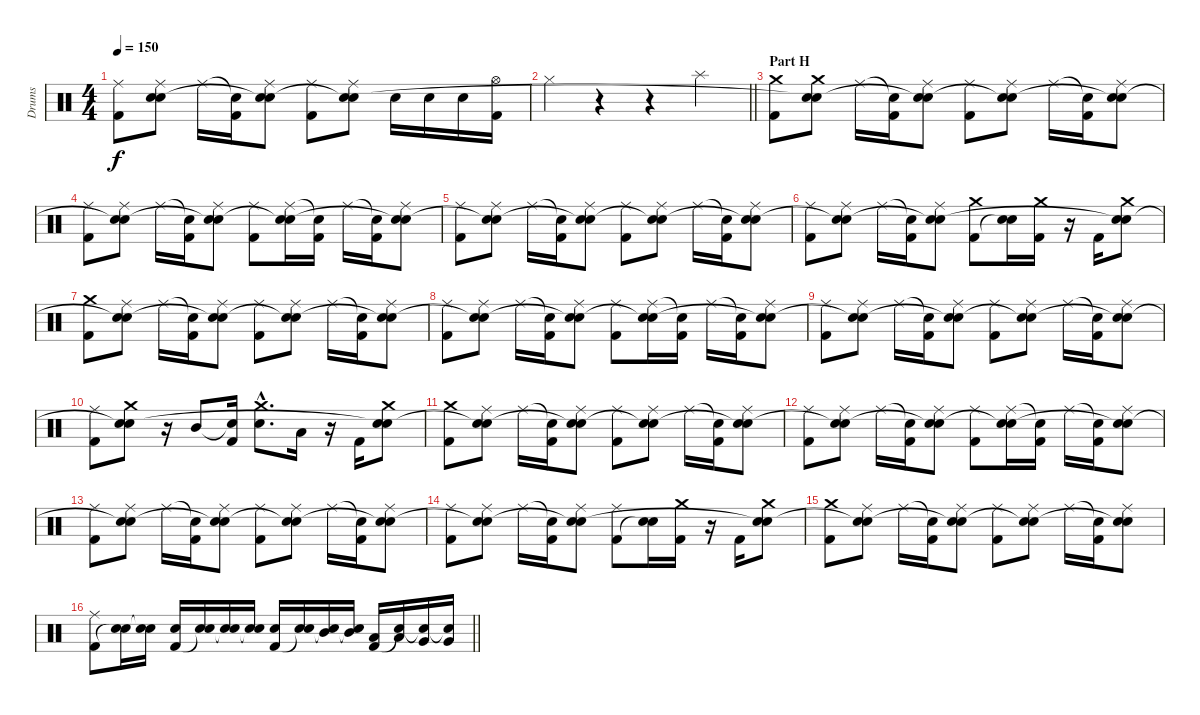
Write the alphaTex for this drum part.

\track ("Drums" "Drums") {instrument percussion}
\staff {score}
\articulation defaults
\ts (4 4)
\tempo 150
\clef neutral
\ks c
("Ride (middle)" "Kick (hit) 2").8{dy f} ("Ride (middle)" "Electric Snare (hit)" "Snare (hit)"{t}).8 "Ride (middle)".16 ("Snare (hit)"{t} "Kick (hit) 2").16 ("Ride (middle)" "Electric Snare (hit)" "Snare (hit)"{t}).8 ("Ride (middle)" "Kick (hit) 2").8 ("Ride (middle)" "Electric Snare (hit)" "Snare (hit)"{t}).8 "Electric Snare (hit)".16 "Electric Snare (hit)".16 "Electric Snare (hit)".16 ("Hi-Hat (open)" "Kick (hit) 2").16 |
\barLineRight lightlight "Hi-Hat (closed)".4
r.4 r.4 "Splash (hit)".4 |
\section ("" "Part H")
("Crash medium (hit)" "Kick (hit) 2").8 ("Crash medium (hit)" "Electric Snare (hit)" "Snare (hit)"{t}).8 "Ride (middle)".16 ("Snare (hit)"{t} "Kick (hit) 2").16 ("Ride (middle)" "Electric Snare (hit)" "Snare (hit)"{t}).8 ("Ride (middle)" "Kick (hit) 2").8 ("Ride (middle)" "Electric Snare (hit)" "Snare (hit)"{t}).8 "Ride (middle)".16 ("Snare (hit)"{t} "Kick (hit) 2").16 ("Ride (middle)" "Electric Snare (hit)" "Snare (hit)"{t}).8 |
("Ride (middle)" "Kick (hit) 2").8 ("Ride (middle)" "Electric Snare (hit)" "Snare (hit)"{t}).8 "Ride (middle)".16 ("Snare (hit)"{t} "Kick (hit) 2").16 ("Ride (middle)" "Electric Snare (hit)" "Snare (hit)"{t}).8 ("Ride (middle)" "Kick (hit) 2").8 ("Ride (middle)" "Electric Snare (hit)" "Snare (hit)"{t}).16 ("Snare (hit)"{t} "Kick (hit) 2").16 "Ride (middle)".16 ("Snare (hit)"{t} "Kick (hit) 2").16 ("Ride (middle)" "Electric Snare (hit)" "Snare (hit)"{t}).8 |
("Ride (middle)" "Kick (hit) 2").8 ("Ride (middle)" "Electric Snare (hit)" "Snare (hit)"{t}).8 "Ride (middle)".16 ("Snare (hit)"{t} "Kick (hit) 2").16 ("Ride (middle)" "Electric Snare (hit)" "Snare (hit)"{t}).8 ("Ride (middle)" "Kick (hit) 2").8 ("Ride (middle)" "Electric Snare (hit)" "Snare (hit)"{t}).8 "Ride (middle)".16 ("Snare (hit)"{t} "Kick (hit) 2").16 ("Ride (middle)" "Electric Snare (hit)" "Snare (hit)"{t}).8 |
("Ride (middle)" "Kick (hit) 2").8 ("Ride (middle)" "Electric Snare (hit)" "Snare (hit)"{t}).8 "Ride (middle)".16 ("Snare (hit)"{t} "Kick (hit) 2").16 ("Ride (middle)" "Electric Snare (hit)" "Snare (hit)"{t}).8 ("Crash medium (hit)" "Kick (hit) 2").8 ("Electric Snare (hit)" "Snare (hit)"{t}).16 ("Crash medium (hit)" "Kick (hit) 2").16 r.16 "Kick (hit) 2".16 ("Crash medium (hit)" "Electric Snare (hit)" "Snare (hit)"{t}).8 |
("Crash medium (hit)" "Kick (hit) 2").8 ("Ride (middle)" "Electric Snare (hit)" "Snare (hit)"{t}).8 "Ride (middle)".16 ("Snare (hit)"{t} "Kick (hit) 2").16 ("Ride (middle)" "Electric Snare (hit)" "Snare (hit)"{t}).8 ("Ride (middle)" "Kick (hit) 2").8 ("Ride (middle)" "Electric Snare (hit)" "Snare (hit)"{t}).8 "Ride (middle)".16 ("Snare (hit)"{t} "Kick (hit) 2").16 ("Ride (middle)" "Electric Snare (hit)" "Snare (hit)"{t}).8 |
("Ride (middle)" "Kick (hit) 2").8 ("Ride (middle)" "Electric Snare (hit)" "Snare (hit)"{t}).8 "Ride (middle)".16 ("Snare (hit)"{t} "Kick (hit) 2").16 ("Ride (middle)" "Electric Snare (hit)" "Snare (hit)"{t}).8 ("Ride (middle)" "Kick (hit) 2").8 ("Ride (middle)" "Electric Snare (hit)" "Snare (hit)"{t}).16 ("Snare (hit)"{t} "Kick (hit) 2").16 "Ride (middle)".16 ("Snare (hit)"{t} "Kick (hit) 2").16 ("Ride (middle)" "Electric Snare (hit)" "Snare (hit)"{t}).8 |
("Ride (middle)" "Kick (hit) 2").8 ("Ride (middle)" "Electric Snare (hit)" "Snare (hit)"{t}).8 "Ride (middle)".16 ("Snare (hit)"{t} "Kick (hit) 2").16 ("Ride (middle)" "Electric Snare (hit)" "Snare (hit)"{t}).8 ("Ride (middle)" "Kick (hit) 2").8 ("Ride (middle)" "Electric Snare (hit)" "Snare (hit)"{t}).8 "Ride (middle)".16 ("Snare (hit)"{t} "Kick (hit) 2").16 ("Ride (middle)" "Electric Snare (hit)" "Snare (hit)"{t}).8 |
("Ride (middle)" "Kick (hit) 2").8 ("Crash medium (hit)" "Electric Snare (hit)" "Snare (hit)"{t}).8 r.16 "Mid Tom (hit)".8 ("Snare (hit)"{t} "Kick (hit) 2").16 ("Crash medium (hit)"{hac} "Electric Snare (hit)"{hac}).8{d} "Low Tom (hit)".16 r.16 "Kick (hit) 2".16 ("Crash medium (hit)" "Electric Snare (hit)" "Snare (hit)"{t}).8 |
("Crash medium (hit)" "Kick (hit) 2").8 ("Ride (middle)" "Electric Snare (hit)" "Snare (hit)"{t}).8 "Ride (middle)".16 ("Snare (hit)"{t} "Kick (hit) 2").16 ("Ride (middle)" "Electric Snare (hit)" "Snare (hit)"{t}).8 ("Ride (middle)" "Kick (hit) 2").8 ("Ride (middle)" "Electric Snare (hit)" "Snare (hit)"{t}).8 "Ride (middle)".16 ("Snare (hit)"{t} "Kick (hit) 2").16 ("Ride (middle)" "Electric Snare (hit)" "Snare (hit)"{t}).8 |
("Ride (middle)" "Kick (hit) 2").8 ("Ride (middle)" "Electric Snare (hit)" "Snare (hit)"{t}).8 "Ride (middle)".16 ("Snare (hit)"{t} "Kick (hit) 2").16 ("Ride (middle)" "Electric Snare (hit)" "Snare (hit)"{t}).8 ("Ride (middle)" "Kick (hit) 2").8 ("Ride (middle)" "Electric Snare (hit)" "Snare (hit)"{t}).16 ("Snare (hit)"{t} "Kick (hit) 2").16 "Ride (middle)".16 ("Snare (hit)"{t} "Kick (hit) 2").16 ("Ride (middle)" "Electric Snare (hit)" "Snare (hit)"{t}).8 |
("Ride (middle)" "Kick (hit) 2").8 ("Ride (middle)" "Electric Snare (hit)" "Snare (hit)"{t}).8 "Ride (middle)".16 ("Snare (hit)"{t} "Kick (hit) 2").16 ("Ride (middle)" "Electric Snare (hit)" "Snare (hit)"{t}).8 ("Ride (middle)" "Kick (hit) 2").8 ("Ride (middle)" "Electric Snare (hit)" "Snare (hit)"{t}).8 "Ride (middle)".16 ("Snare (hit)"{t} "Kick (hit) 2").16 ("Ride (middle)" "Electric Snare (hit)" "Snare (hit)"{t}).8 |
("Ride (middle)" "Kick (hit) 2").8 ("Ride (middle)" "Electric Snare (hit)" "Snare (hit)"{t}).8 "Ride (middle)".16 ("Snare (hit)"{t} "Kick (hit) 2").16 ("Ride (middle)" "Electric Snare (hit)" "Snare (hit)"{t}).8 ("Ride (middle)" "Kick (hit) 2").8 ("Electric Snare (hit)" "Snare (hit)"{t}).16 ("Crash medium (hit)" "Kick (hit) 2").16 r.16 "Kick (hit) 2".16 ("Crash medium (hit)" "Electric Snare (hit)" "Snare (hit)"{t}).8 |
("Crash medium (hit)" "Kick (hit) 2").8 ("Ride (middle)" "Electric Snare (hit)" "Snare (hit)"{t}).8 "Ride (middle)".16 ("Snare (hit)"{t} "Kick (hit) 2").16 ("Ride (middle)" "Electric Snare (hit)" "Snare (hit)"{t}).8 ("Ride (middle)" "Kick (hit) 2").8 ("Ride (middle)" "Electric Snare (hit)" "Snare (hit)"{t}).8 "Ride (middle)".16 ("Snare (hit)"{t} "Kick (hit) 2").16 ("Ride (middle)" "Electric Snare (hit)" "Snare (hit)"{t}).8 |
\barLineRight lightlight
("Ride (middle)" "Kick (hit) 2").8 ("Electric Snare (hit)" "Snare (hit)"{t}).16 ("Electric Snare (hit)" "Snare (hit)"{t}).16 ("Electric Snare (hit)" "Kick (hit) 2").16 ("Electric Snare (hit)" "Snare (hit)"{t}).16 ("Electric Snare (hit)" "Snare (hit)"{t}).16 ("Electric Snare (hit)" "Snare (hit)"{t}).16 ("Electric Snare (hit)" "Kick (hit) 2").16 ("Electric Snare (hit)" "Snare (hit)"{t}).16 ("Mid Tom (hit)" "Snare (hit)"{t}).16 ("Mid Tom (hit)" "Snare (hit)"{t}).16 ("Low Tom (hit)" "Kick (hit) 2").16 ("Low Tom (hit)" "Snare (hit)"{t}).16 ("Very Low Tom (hit)" "Snare (hit)"{t}).16 ("Very Low Tom (hit)" "Snare (hit)"{t}).16
